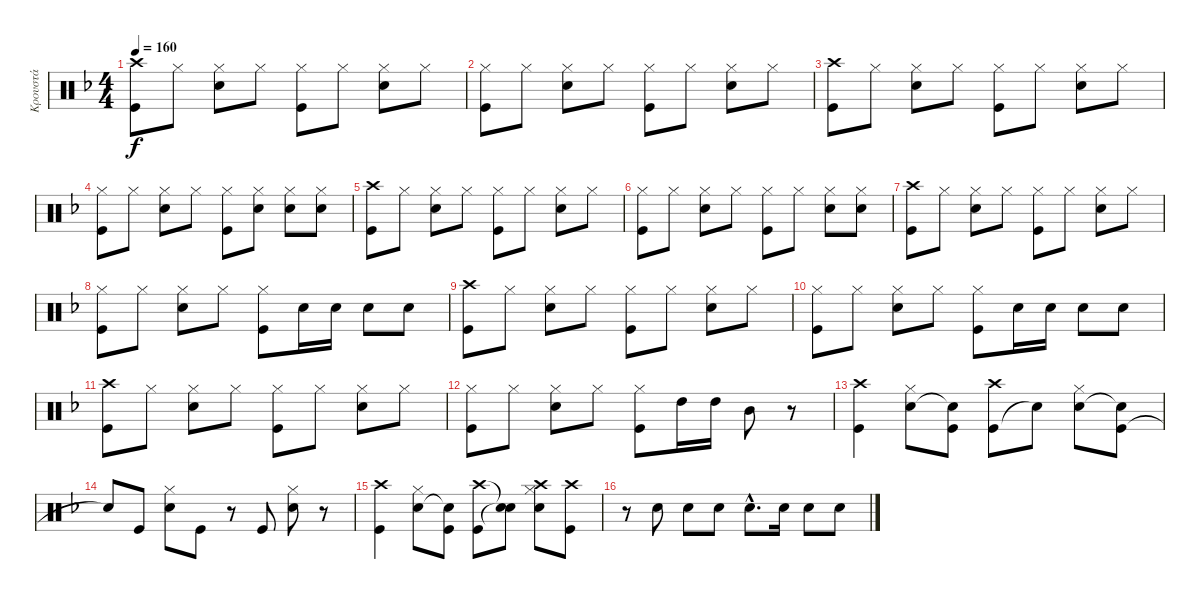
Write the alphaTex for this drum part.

\track ("Κρουστά" "Κρουστά") {instrument percussion}
\staff {score}
\articulation defaults
\ts (4 4)
\tempo 160
\clef neutral
\ks dminor
("Crash high (hit)" "Kick (hit)").8{dy f} "Hi-Hat (closed)".8 ("Hi-Hat (closed)" "Snare (hit) 2").8 "Hi-Hat (closed)".8 ("Hi-Hat (closed)" "Kick (hit)").8 "Hi-Hat (closed)".8 ("Hi-Hat (closed)" "Snare (hit) 2").8 "Hi-Hat (closed)".8 |
("Hi-Hat (closed)" "Kick (hit)").8 "Hi-Hat (closed)".8 ("Hi-Hat (closed)" "Snare (hit) 2").8 "Hi-Hat (closed)".8 ("Hi-Hat (closed)" "Kick (hit)").8 "Hi-Hat (closed)".8 ("Hi-Hat (closed)" "Snare (hit) 2").8 "Hi-Hat (closed)".8 |
("Crash high (hit)" "Kick (hit)").8 "Hi-Hat (closed)".8 ("Hi-Hat (closed)" "Snare (hit) 2").8 "Hi-Hat (closed)".8 ("Hi-Hat (closed)" "Kick (hit)").8 "Hi-Hat (closed)".8 ("Hi-Hat (closed)" "Snare (hit) 2").8 "Hi-Hat (closed)".8 |
("Hi-Hat (closed)" "Kick (hit)").8 "Hi-Hat (closed)".8 ("Hi-Hat (closed)" "Snare (hit) 2").8 "Hi-Hat (closed)".8 ("Hi-Hat (closed)" "Kick (hit)").8 ("Hi-Hat (closed)" "Snare (hit) 2").8 ("Hi-Hat (closed)" "Snare (hit) 2").8 ("Hi-Hat (closed)" "Snare (hit) 2").8 |
("Crash high (hit)" "Kick (hit)").8 "Hi-Hat (closed)".8 ("Hi-Hat (closed)" "Snare (hit) 2").8 "Hi-Hat (closed)".8 ("Hi-Hat (closed)" "Kick (hit)").8 "Hi-Hat (closed)".8 ("Hi-Hat (closed)" "Snare (hit) 2").8 "Hi-Hat (closed)".8 |
("Hi-Hat (closed)" "Kick (hit)").8 "Hi-Hat (closed)".8 ("Hi-Hat (closed)" "Snare (hit) 2").8 "Hi-Hat (closed)".8 ("Hi-Hat (closed)" "Kick (hit)").8 "Hi-Hat (closed)".8 ("Hi-Hat (closed)" "Snare (hit) 2").8 ("Hi-Hat (closed)" "Snare (hit) 2").8 |
("Crash high (hit)" "Kick (hit)").8 "Hi-Hat (closed)".8 ("Hi-Hat (closed)" "Snare (hit) 2").8 "Hi-Hat (closed)".8 ("Hi-Hat (closed)" "Kick (hit)").8 "Hi-Hat (closed)".8 ("Hi-Hat (closed)" "Snare (hit) 2").8 "Hi-Hat (closed)".8 |
("Hi-Hat (closed)" "Kick (hit)").8 "Hi-Hat (closed)".8 ("Hi-Hat (closed)" "Snare (hit) 2").8 "Hi-Hat (closed)".8 ("Hi-Hat (closed)" "Kick (hit)").8 "Snare (hit) 2".16 "Snare (hit) 2".16 "Snare (hit) 2".8 "Snare (hit) 2".8 |
("Crash high (hit)" "Kick (hit)").8 "Hi-Hat (closed)".8 ("Hi-Hat (closed)" "Snare (hit) 2").8 "Hi-Hat (closed)".8 ("Hi-Hat (closed)" "Kick (hit)").8 "Hi-Hat (closed)".8 ("Hi-Hat (closed)" "Snare (hit) 2").8 "Hi-Hat (closed)".8 |
("Hi-Hat (closed)" "Kick (hit)").8 "Hi-Hat (closed)".8 ("Hi-Hat (closed)" "Snare (hit) 2").8 "Hi-Hat (closed)".8 ("Hi-Hat (closed)" "Kick (hit)").8 "Snare (hit) 2".16 "Snare (hit) 2".16 "Snare (hit) 2".8 "Snare (hit) 2".8 |
("Crash high (hit)" "Kick (hit)").8 "Hi-Hat (closed)".8 ("Hi-Hat (closed)" "Snare (hit) 2").8 "Hi-Hat (closed)".8 ("Hi-Hat (closed)" "Kick (hit)").8 "Hi-Hat (closed)".8 ("Hi-Hat (closed)" "Snare (hit) 2").8 "Hi-Hat (closed)".8 |
("Hi-Hat (closed)" "Kick (hit)").8 "Hi-Hat (closed)".8 ("Hi-Hat (closed)" "Snare (hit) 2").8 "Hi-Hat (closed)".8 ("Hi-Hat (closed)" "Kick (hit)").8 "High Tom (hit)".16 "High Tom (hit)".16 "Mid Tom (hit)".8 r.8 |
("Kick (hit)" "Crash high (hit)").4 ("Hi-Hat (closed)" "Snare (hit) 2").8 ("Kick (hit)" "Snare (hit)"{t}).8 ("Kick (hit)" "Crash high (hit)").8 "Snare (hit)"{t}.8 ("Hi-Hat (closed)" "Snare (hit) 2").8 ("Kick (hit)" "Snare (hit)"{t}).8 |
"Snare (hit)"{t}.8 "Kick (hit)".8 ("Hi-Hat (closed)" "Snare (hit) 2").8 "Kick (hit)".8 r.8 "Kick (hit)".8 ("Hi-Hat (closed)" "Snare (hit) 2").8 r.8 |
("Kick (hit)" "Crash high (hit)").4 ("Hi-Hat (closed)" "Snare (hit) 2").8 ("Kick (hit)" "Snare (hit)"{t}).8 ("Kick (hit)" "Crash high (hit)").8 ("Snare (hit)"{t} "Snare (hit)"{t}).8 ("Hi-Hat (closed)" "Snare (hit) 2" "Crash high (hit)").8 ("Kick (hit)" "Crash high (hit)").8 |
r.8 "Snare (hit) 2".8 "Snare (hit) 2".8 "Snare (hit) 2".8 "Snare (hit) 2"{hac}.8{d} "Snare (hit) 2".16 "Snare (hit) 2".8 "Snare (hit) 2".8
